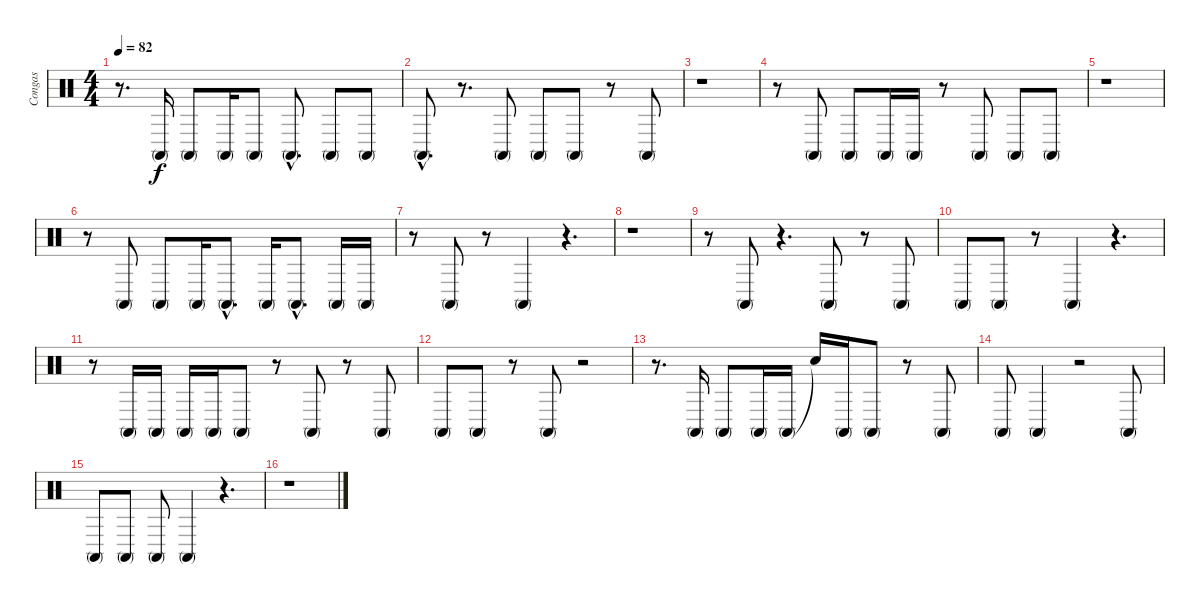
\track ("Congas" "Congas") {instrument percussion}
\staff {score}
\articulation defaults
\ts (4 4)
\tempo 82
\clef neutral
\ks c
r.8{d dy f} "Conga high (mute)".16 "Conga high (mute)".8 "Conga high (mute)".16 "Conga high (mute)".8 "Conga high (mute)"{hac}.8{d} "Conga high (mute)".8 "Conga high (mute)".8 |
"Conga high (mute)"{hac}.8{d} r.8{d} "Conga high (mute)".8 "Conga high (mute)".8 "Conga high (mute)".8 r.8 "Conga high (mute)".8 |
r.1 |
r.8 "Conga high (mute)".8 "Conga high (mute)".8 "Conga high (mute)".16 "Conga high (mute)".16 r.8 "Conga high (mute)".8 "Conga high (mute)".8 "Conga high (mute)".8 |
r.1 |
r.8 "Conga high (mute)".8 "Conga high (mute)".8 "Conga high (mute)".16 "Conga high (mute)"{hac}.8{d} "Conga high (mute)".16 "Conga high (mute)"{hac}.8{d} "Conga high (mute)".16 "Conga high (mute)".16 |
r.8 "Conga high (mute)".8 r.8 "Conga high (mute)".4 r.4{d} |
r.1 |
r.8 "Conga high (mute)".8 r.4{d} "Conga high (mute)".8 r.8 "Conga high (mute)".8 |
"Conga high (mute)".8 "Conga high (mute)".8 r.8 "Conga high (mute)".4 r.4{d} |
r.8 "Conga high (mute)".16 "Conga high (mute)".16 "Conga high (mute)".16 "Conga high (mute)".16 "Conga high (mute)".8 r.8 "Conga high (mute)".8 r.8 "Conga high (mute)".8 |
"Conga high (mute)".8 "Conga high (mute)".8 r.8 "Conga high (mute)".8 r.2 |
r.8{d} "Conga high (mute)".16 "Conga high (mute)".8 "Conga high (mute)".16 "Conga high (mute)".16 "Snare (hit)"{t}.16 "Conga high (mute)".16 "Conga high (mute)".8 r.8 "Conga high (mute)".8 |
"Conga high (mute)".8 "Conga high (mute)".4 r.2 "Conga high (mute)".8 |
"Conga high (mute)".8 "Conga high (mute)".8 "Conga high (mute)".8 "Conga high (mute)".4 r.4{d} |
r.1
